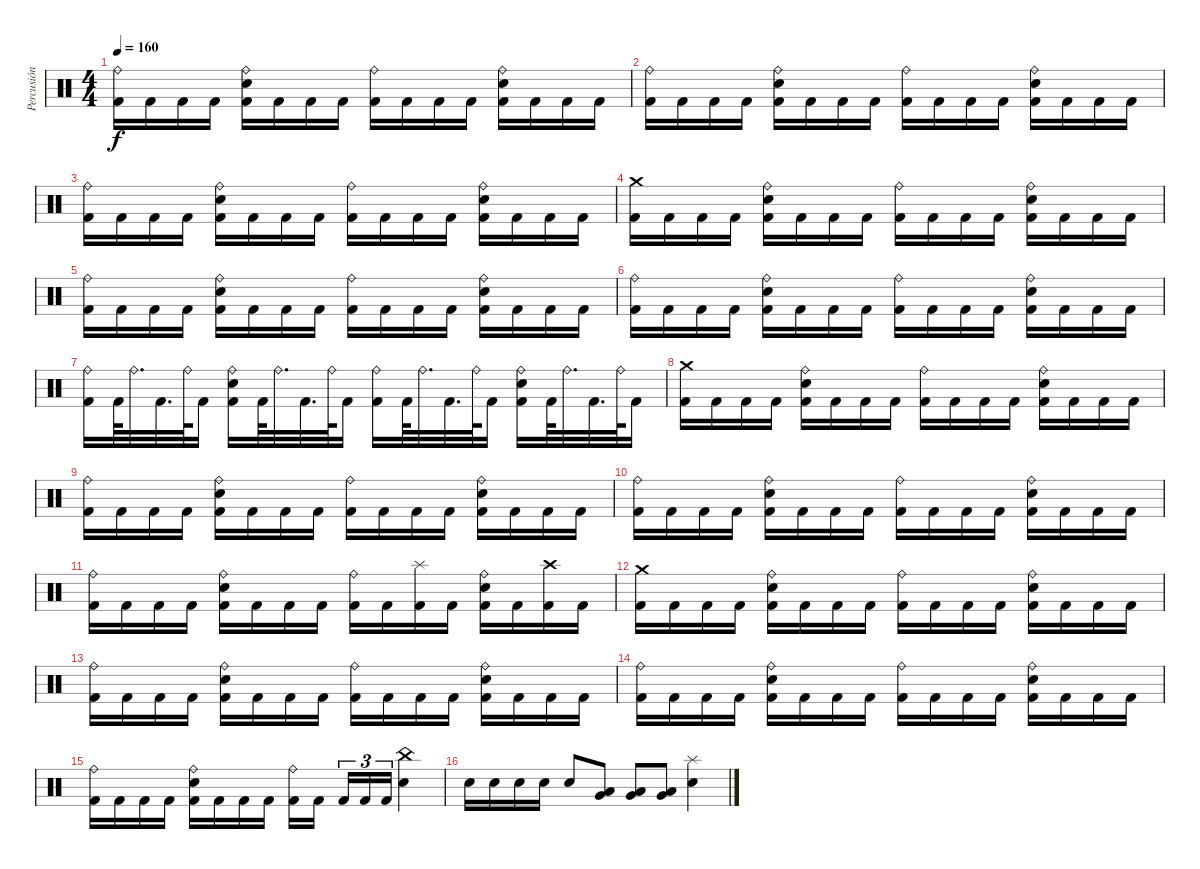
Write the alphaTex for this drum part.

\track ("Percusión" "Percusión") {instrument percussion}
\staff {score}
\articulation defaults
\ts (4 4)
\tempo 160
\clef neutral
\ks c
("Ride (bell)" "Kick (hit) 2").16{dy f} "Kick (hit) 2".16 "Kick (hit) 2".16 "Kick (hit) 2".16 ("Ride (bell)" "Electric Snare (hit)" "Kick (hit) 2").16 "Kick (hit) 2".16 "Kick (hit) 2".16 "Kick (hit) 2".16 ("Ride (bell)" "Kick (hit) 2").16 "Kick (hit) 2".16 "Kick (hit) 2".16 "Kick (hit) 2".16 ("Ride (bell)" "Electric Snare (hit)" "Kick (hit) 2").16 "Kick (hit) 2".16 "Kick (hit) 2".16 "Kick (hit) 2".16 |
("Ride (bell)" "Kick (hit) 2").16 "Kick (hit) 2".16 "Kick (hit) 2".16 "Kick (hit) 2".16 ("Ride (bell)" "Electric Snare (hit)" "Kick (hit) 2").16 "Kick (hit) 2".16 "Kick (hit) 2".16 "Kick (hit) 2".16 ("Ride (bell)" "Kick (hit) 2").16 "Kick (hit) 2".16 "Kick (hit) 2".16 "Kick (hit) 2".16 ("Ride (bell)" "Electric Snare (hit)" "Kick (hit) 2").16 "Kick (hit) 2".16 "Kick (hit) 2".16 "Kick (hit) 2".16 |
("Ride (bell)" "Kick (hit) 2").16 "Kick (hit) 2".16 "Kick (hit) 2".16 "Kick (hit) 2".16 ("Ride (bell)" "Electric Snare (hit)" "Kick (hit) 2").16 "Kick (hit) 2".16 "Kick (hit) 2".16 "Kick (hit) 2".16 ("Ride (bell)" "Kick (hit) 2").16 "Kick (hit) 2".16 "Kick (hit) 2".16 "Kick (hit) 2".16 ("Ride (bell)" "Electric Snare (hit)" "Kick (hit) 2").16 "Kick (hit) 2".16 "Kick (hit) 2".16 "Kick (hit) 2".16 |
("Crash medium (hit)" "Kick (hit) 2").16 "Kick (hit) 2".16 "Kick (hit) 2".16 "Kick (hit) 2".16 ("Ride (bell)" "Electric Snare (hit)" "Kick (hit) 2").16 "Kick (hit) 2".16 "Kick (hit) 2".16 "Kick (hit) 2".16 ("Ride (bell)" "Kick (hit) 2").16 "Kick (hit) 2".16 "Kick (hit) 2".16 "Kick (hit) 2".16 ("Ride (bell)" "Electric Snare (hit)" "Kick (hit) 2").16 "Kick (hit) 2".16 "Kick (hit) 2".16 "Kick (hit) 2".16 |
("Ride (bell)" "Kick (hit) 2").16 "Kick (hit) 2".16 "Kick (hit) 2".16 "Kick (hit) 2".16 ("Ride (bell)" "Electric Snare (hit)" "Kick (hit) 2").16 "Kick (hit) 2".16 "Kick (hit) 2".16 "Kick (hit) 2".16 ("Ride (bell)" "Kick (hit) 2").16 "Kick (hit) 2".16 "Kick (hit) 2".16 "Kick (hit) 2".16 ("Ride (bell)" "Electric Snare (hit)" "Kick (hit) 2").16 "Kick (hit) 2".16 "Kick (hit) 2".16 "Kick (hit) 2".16 |
("Ride (bell)" "Kick (hit) 2").16 "Kick (hit) 2".16 "Kick (hit) 2".16 "Kick (hit) 2".16 ("Ride (bell)" "Electric Snare (hit)" "Kick (hit) 2").16 "Kick (hit) 2".16 "Kick (hit) 2".16 "Kick (hit) 2".16 ("Ride (bell)" "Kick (hit) 2").16 "Kick (hit) 2".16 "Kick (hit) 2".16 "Kick (hit) 2".16 ("Ride (bell)" "Electric Snare (hit)" "Kick (hit) 2").16 "Kick (hit) 2".16 "Kick (hit) 2".16 "Kick (hit) 2".16 |
("Ride (bell)" "Kick (hit) 2").16 "Kick (hit) 2".64 "Ride (bell)".32{d} "Kick (hit) 2".32{d} "Ride (bell)".64 "Kick (hit) 2".16 ("Ride (bell)" "Electric Snare (hit)" "Kick (hit) 2").16 "Kick (hit) 2".64 "Ride (bell)".32{d} "Kick (hit) 2".32{d} "Ride (bell)".64 "Kick (hit) 2".16 ("Ride (bell)" "Kick (hit) 2").16 "Kick (hit) 2".64 "Ride (bell)".32{d} "Kick (hit) 2".32{d} "Ride (bell)".64 "Kick (hit) 2".16 ("Ride (bell)" "Electric Snare (hit)" "Kick (hit) 2").16 "Kick (hit) 2".64 "Ride (bell)".32{d} "Kick (hit) 2".32{d} "Ride (bell)".64 "Kick (hit) 2".16 |
("Crash medium (hit)" "Kick (hit) 2").16 "Kick (hit) 2".16 "Kick (hit) 2".16 "Kick (hit) 2".16 ("Ride (bell)" "Electric Snare (hit)" "Kick (hit) 2").16 "Kick (hit) 2".16 "Kick (hit) 2".16 "Kick (hit) 2".16 ("Ride (bell)" "Kick (hit) 2").16 "Kick (hit) 2".16 "Kick (hit) 2".16 "Kick (hit) 2".16 ("Ride (bell)" "Electric Snare (hit)" "Kick (hit) 2").16 "Kick (hit) 2".16 "Kick (hit) 2".16 "Kick (hit) 2".16 |
("Ride (bell)" "Kick (hit) 2").16 "Kick (hit) 2".16 "Kick (hit) 2".16 "Kick (hit) 2".16 ("Ride (bell)" "Electric Snare (hit)" "Kick (hit) 2").16 "Kick (hit) 2".16 "Kick (hit) 2".16 "Kick (hit) 2".16 ("Ride (bell)" "Kick (hit) 2").16 "Kick (hit) 2".16 "Kick (hit) 2".16 "Kick (hit) 2".16 ("Ride (bell)" "Electric Snare (hit)" "Kick (hit) 2").16 "Kick (hit) 2".16 "Kick (hit) 2".16 "Kick (hit) 2".16 |
("Ride (bell)" "Kick (hit) 2").16 "Kick (hit) 2".16 "Kick (hit) 2".16 "Kick (hit) 2".16 ("Ride (bell)" "Electric Snare (hit)" "Kick (hit) 2").16 "Kick (hit) 2".16 "Kick (hit) 2".16 "Kick (hit) 2".16 ("Ride (bell)" "Kick (hit) 2").16 "Kick (hit) 2".16 "Kick (hit) 2".16 "Kick (hit) 2".16 ("Ride (bell)" "Electric Snare (hit)" "Kick (hit) 2").16 "Kick (hit) 2".16 "Kick (hit) 2".16 "Kick (hit) 2".16 |
("Ride (bell)" "Kick (hit) 2").16 "Kick (hit) 2".16 "Kick (hit) 2".16 "Kick (hit) 2".16 ("Ride (bell)" "Electric Snare (hit)" "Kick (hit) 2").16 "Kick (hit) 2".16 "Kick (hit) 2".16 "Kick (hit) 2".16 ("Ride (bell)" "Kick (hit) 2").16 "Kick (hit) 2".16 ("Splash (hit)" "Kick (hit) 2").16 "Kick (hit) 2".16 ("Ride (bell)" "Electric Snare (hit)" "Kick (hit) 2").16 "Kick (hit) 2".16 ("Crash high (hit)" "Kick (hit) 2").16 "Kick (hit) 2".16 |
("Crash medium (hit)" "Kick (hit) 2").16 "Kick (hit) 2".16 "Kick (hit) 2".16 "Kick (hit) 2".16 ("Ride (bell)" "Electric Snare (hit)" "Kick (hit) 2").16 "Kick (hit) 2".16 "Kick (hit) 2".16 "Kick (hit) 2".16 ("Ride (bell)" "Kick (hit) 2").16 "Kick (hit) 2".16 "Kick (hit) 2".16 "Kick (hit) 2".16 ("Ride (bell)" "Electric Snare (hit)" "Kick (hit) 2").16 "Kick (hit) 2".16 "Kick (hit) 2".16 "Kick (hit) 2".16 |
("Ride (bell)" "Kick (hit) 2").16 "Kick (hit) 2".16 "Kick (hit) 2".16 "Kick (hit) 2".16 ("Ride (bell)" "Electric Snare (hit)" "Kick (hit) 2").16 "Kick (hit) 2".16 "Kick (hit) 2".16 "Kick (hit) 2".16 ("Ride (bell)" "Kick (hit) 2").16 "Kick (hit) 2".16 "Kick (hit) 2".16 "Kick (hit) 2".16 ("Ride (bell)" "Electric Snare (hit)" "Kick (hit) 2").16 "Kick (hit) 2".16 "Kick (hit) 2".16 "Kick (hit) 2".16 |
("Ride (bell)" "Kick (hit) 2").16 "Kick (hit) 2".16 "Kick (hit) 2".16 "Kick (hit) 2".16 ("Ride (bell)" "Electric Snare (hit)" "Kick (hit) 2").16 "Kick (hit) 2".16 "Kick (hit) 2".16 "Kick (hit) 2".16 ("Ride (bell)" "Kick (hit) 2").16 "Kick (hit) 2".16 "Kick (hit) 2".16 "Kick (hit) 2".16 ("Ride (bell)" "Electric Snare (hit)" "Kick (hit) 2").16 "Kick (hit) 2".16 "Kick (hit) 2".16 "Kick (hit) 2".16 |
("Ride (bell)" "Kick (hit) 2").16 "Kick (hit) 2".16 "Kick (hit) 2".16 "Kick (hit) 2".16 ("Ride (bell)" "Electric Snare (hit)" "Kick (hit) 2").16 "Kick (hit) 2".16 "Kick (hit) 2".16 "Kick (hit) 2".16 ("Ride (bell)" "Kick (hit) 2").16 "Kick (hit) 2".16{beam splitsecondary} "Kick (hit) 2".16{tu (3 2)} "Kick (hit) 2".16{tu (3 2)} "Kick (hit) 2".16{tu (3 2)} ("China (hit)" "Electric Snare (hit)").4 |
"Electric Snare (hit)".16 "Electric Snare (hit)".16 "Electric Snare (hit)".16 "Electric Snare (hit)".16 "Electric Snare (hit)".8 ("Low Floor Tom (hit)" "Very Low Tom (hit)").8 ("Low Floor Tom (hit)" "Very Low Tom (hit)").8 ("Low Floor Tom (hit)" "Very Low Tom (hit)").8 ("Splash (hit)" "Electric Snare (hit)").4
